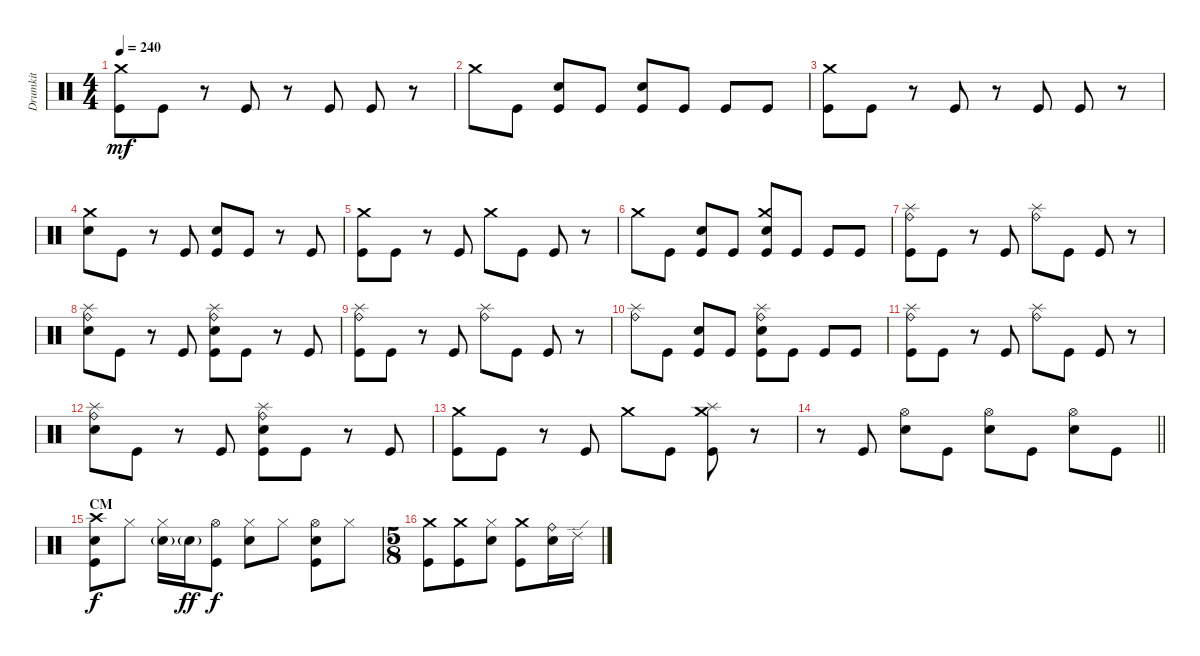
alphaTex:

\track ("Drumkit" "Drumkit") {instrument percussion}
\staff {score}
\articulation defaults
\ts (4 4)
\tempo 240
\clef neutral
\ks c
("Kick (hit)" "Crash medium (hit)").8{dy mf} "Kick (hit)".8 r.8 "Kick (hit)".8 r.8 "Kick (hit)".8 "Kick (hit)".8 r.8 |
"Crash medium (hit)".8 "Kick (hit)".8 ("Snare (hit) 2" "Kick (hit)").8 "Kick (hit)".8 ("Snare (hit) 2" "Kick (hit)").8 "Kick (hit)".8 "Kick (hit)".8 "Kick (hit)".8 |
("Kick (hit)" "Crash medium (hit)").8 "Kick (hit)".8 r.8 "Kick (hit)".8 r.8 "Kick (hit)".8 "Kick (hit)".8 r.8 |
("Snare (hit) 2" "Crash medium (hit)").8 "Kick (hit)".8 r.8 "Kick (hit)".8 ("Snare (hit) 2" "Kick (hit)").8 "Kick (hit)".8 r.8 "Kick (hit)".8 |
("Kick (hit)" "Crash medium (hit)").8 "Kick (hit)".8 r.8 "Kick (hit)".8 "Crash medium (hit)".8 "Kick (hit)".8 "Kick (hit)".8 r.8 |
"Crash medium (hit)".8 "Kick (hit)".8 ("Snare (hit) 2" "Kick (hit)").8 "Kick (hit)".8 ("Snare (hit) 2" "Kick (hit)" "Crash medium (hit)").8 "Kick (hit)".8 "Kick (hit)".8 "Kick (hit)".8 |
("Kick (hit)" "Ride (bell)" "Splash (hit)").8 "Kick (hit)".8 r.8 "Kick (hit)".8 ("Ride (bell)" "Splash (hit)").8 "Kick (hit)".8 "Kick (hit)".8 r.8 |
("Snare (hit) 2" "Ride (bell)" "Splash (hit)").8 "Kick (hit)".8 r.8 "Kick (hit)".8 ("Snare (hit) 2" "Kick (hit)" "Splash (hit)" "Ride (bell)").8 "Kick (hit)".8 r.8 "Kick (hit)".8 |
("Kick (hit)" "Ride (bell)" "Splash (hit)").8 "Kick (hit)".8 r.8 "Kick (hit)".8 ("Splash (hit)" "Ride (bell)").8 "Kick (hit)".8 "Kick (hit)".8 r.8 |
("Ride (bell)" "Splash (hit)").8 "Kick (hit)".8 ("Snare (hit) 2" "Kick (hit)").8 "Kick (hit)".8 ("Snare (hit) 2" "Kick (hit)" "Splash (hit)" "Ride (bell)").8 "Kick (hit)".8 "Kick (hit)".8 "Kick (hit)".8 |
("Kick (hit)" "Ride (bell)" "Splash (hit)").8 "Kick (hit)".8 r.8 "Kick (hit)".8 ("Splash (hit)" "Ride (bell)").8 "Kick (hit)".8 "Kick (hit)".8 r.8 |
("Snare (hit) 2" "Ride (bell)" "Splash (hit)").8 "Kick (hit)".8 r.8 "Kick (hit)".8 ("Snare (hit) 2" "Kick (hit)" "Ride (bell)" "Splash (hit)").8 "Kick (hit)".8 r.8 "Kick (hit)".8 |
("Kick (hit)" "Crash medium (hit)").8 "Kick (hit)".8 r.8 "Kick (hit)".8 "Crash medium (hit)".8 "Kick (hit)".8 ("Kick (hit)" "Splash (hit)" "Crash medium (hit)").8 r.8 |
\barLineRight lightlight
r.8 "Kick (hit)".8 ("Snare (hit) 2" "Hi-Hat (open)").8 "Kick (hit)".8 ("Snare (hit) 2" "Hi-Hat (open)").8 "Kick (hit)".8 ("Snare (hit) 2" "Hi-Hat (open)").8 "Kick (hit)".8 |
\section ("" "CM")
("Crash high (hit)" "Snare (hit) 2" "Kick (hit)").8{dy f} "Hi-Hat (closed)".8 ("Hi-Hat (closed)" "Snare (hit) 2"{g}).16 "Snare (hit) 2"{g}.16{dy ff} ("Hi-Hat (open)" "Kick (hit)").8{dy f} ("Hi-Hat (closed)" "Snare (hit) 2").8 "Hi-Hat (closed)".8 ("Hi-Hat (open)" "Snare (hit) 2" "Kick (hit)").8 "Hi-Hat (closed)".8 |
\ts (5 8)
("Crash medium (hit)" "Kick (hit)").8 ("Crash medium (hit)" "Kick (hit)").8 ("Hi-Hat (closed)" "Snare (hit) 2").8 ("Crash medium (hit)" "Kick (hit)").8 ("Ride (bell)" "Snare (hit) 2").16 "Ride (edge) 2".16
